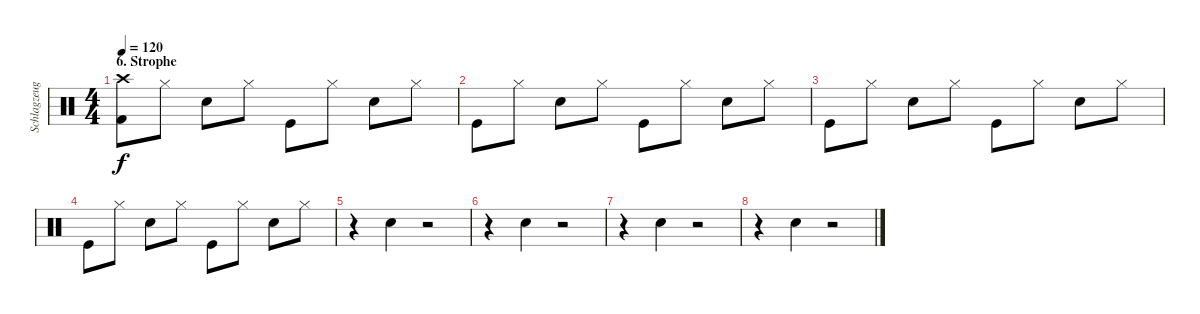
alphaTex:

\track ("Schlagzeug" "Schlagzeug") {instrument percussion}
\staff {score}
\articulation defaults
\ts (4 4)
\section ("" "6. Strophe")
\tempo 120
\clef neutral
\ks c
("Crash high (hit)" "Kick (hit) 2").8{dy f} "Hi-Hat (closed)".8 "Snare (hit) 2".8 "Hi-Hat (closed)".8 "Kick (hit)".8 "Hi-Hat (closed)".8 "Electric Snare (hit)".8 "Hi-Hat (closed)".8 |
"Kick (hit)".8 "Hi-Hat (closed)".8 "Electric Snare (hit)".8 "Hi-Hat (closed)".8 "Kick (hit)".8 "Hi-Hat (closed)".8 "Electric Snare (hit)".8 "Hi-Hat (closed)".8 |
"Kick (hit)".8 "Hi-Hat (closed)".8 "Electric Snare (hit)".8 "Hi-Hat (closed)".8 "Kick (hit)".8 "Hi-Hat (closed)".8 "Electric Snare (hit)".8 "Hi-Hat (closed)".8 |
"Kick (hit)".8 "Hi-Hat (closed)".8 "Electric Snare (hit)".8 "Hi-Hat (closed)".8 "Kick (hit)".8 "Hi-Hat (closed)".8 "Electric Snare (hit)".8 "Hi-Hat (closed)".8 |
r.4 "Snare (hit) 2".4 r.2 |
r.4 "Snare (hit) 2".4 r.2 |
r.4 "Snare (hit) 2".4 r.2 |
r.4 "Snare (hit) 2".4 r.2
